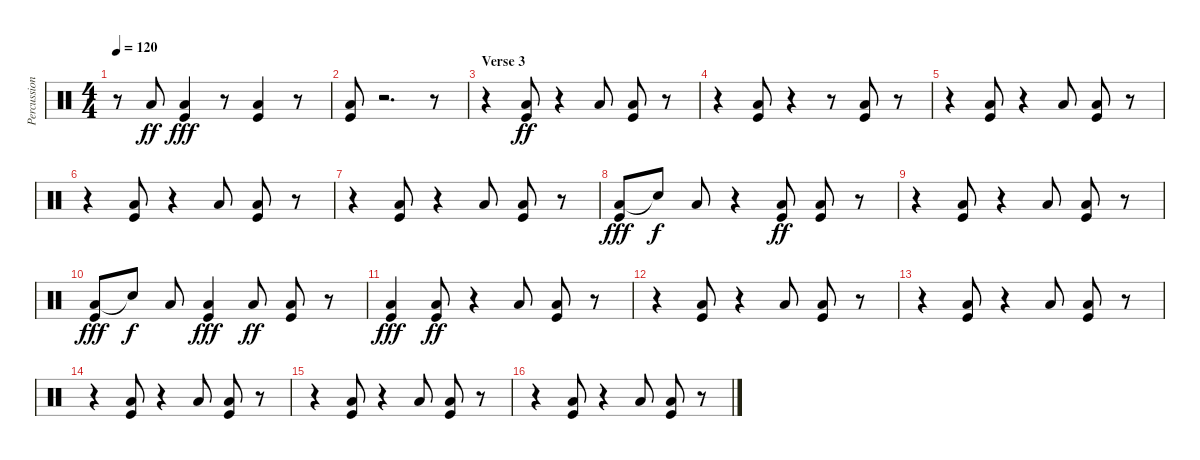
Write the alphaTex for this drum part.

\track ("Percussion" "Percussion") {instrument percussion}
\staff {score}
\articulation defaults
\ts (4 4)
\tempo 120
\clef neutral
\ks c
r.8{dy fff} "Low Tom (hit)".8{dy ff} ("Low Floor Tom (hit)" "Kick (hit)").4{dy fff} r.8 ("Low Floor Tom (hit)" "Kick (hit)").4 r.8 |
("Low Floor Tom (hit)" "Kick (hit)").8 r.2{d} r.8 |
\section ("" "Verse 3")
r.4 ("Low Floor Tom (hit)" "Kick (hit)").8{dy ff} r.4 "Low Tom (hit)".8 ("Low Floor Tom (hit)" "Kick (hit)").8 r.8 |
r.4 ("Low Floor Tom (hit)" "Kick (hit)").8 r.4 r.8 ("Low Floor Tom (hit)" "Kick (hit)").8 r.8 |
r.4 ("Low Floor Tom (hit)" "Kick (hit)").8 r.4 "Low Tom (hit)".8 ("Low Floor Tom (hit)" "Kick (hit)").8 r.8 |
r.4 ("Low Floor Tom (hit)" "Kick (hit)").8 r.4 "Low Tom (hit)".8 ("Low Floor Tom (hit)" "Kick (hit)").8 r.8 |
r.4 ("Low Floor Tom (hit)" "Kick (hit)").8 r.4 "Low Tom (hit)".8 ("Low Floor Tom (hit)" "Kick (hit)").8 r.8 |
("Low Floor Tom (hit)" "Kick (hit)").8{dy fff} "Snare (hit)"{t}.8{dy f} "Low Floor Tom (hit)".8 r.4 ("Low Tom (hit)" "Kick (hit)").8{dy ff} ("Low Floor Tom (hit)" "Kick (hit)").8 r.8 |
r.4 ("Low Floor Tom (hit)" "Kick (hit)").8 r.4 "Low Tom (hit)".8 ("Low Floor Tom (hit)" "Kick (hit)").8 r.8 |
("Low Floor Tom (hit)" "Kick (hit)").8{dy fff} "Snare (hit)"{t}.8{dy f} "Low Floor Tom (hit)".8 ("Low Floor Tom (hit)" "Kick (hit)").4{dy fff} "Low Tom (hit)".8{dy ff} ("Low Floor Tom (hit)" "Kick (hit)").8 r.8 |
("Low Floor Tom (hit)" "Kick (hit)").4{dy fff} ("Low Floor Tom (hit)" "Kick (hit)").8{dy ff} r.4 "Low Tom (hit)".8 ("Low Floor Tom (hit)" "Kick (hit)").8 r.8 |
r.4 ("Low Floor Tom (hit)" "Kick (hit)").8 r.4 "Low Tom (hit)".8 ("Low Floor Tom (hit)" "Kick (hit)").8 r.8 |
r.4 ("Low Floor Tom (hit)" "Kick (hit)").8 r.4 "Low Tom (hit)".8 ("Low Floor Tom (hit)" "Kick (hit)").8 r.8 |
r.4 ("Low Floor Tom (hit)" "Kick (hit)").8 r.4 "Low Tom (hit)".8 ("Low Floor Tom (hit)" "Kick (hit)").8 r.8 |
r.4 ("Low Floor Tom (hit)" "Kick (hit)").8 r.4 "Low Tom (hit)".8 ("Low Floor Tom (hit)" "Kick (hit)").8 r.8 |
r.4 ("Low Floor Tom (hit)" "Kick (hit)").8 r.4 "Low Tom (hit)".8 ("Low Floor Tom (hit)" "Kick (hit)").8 r.8
